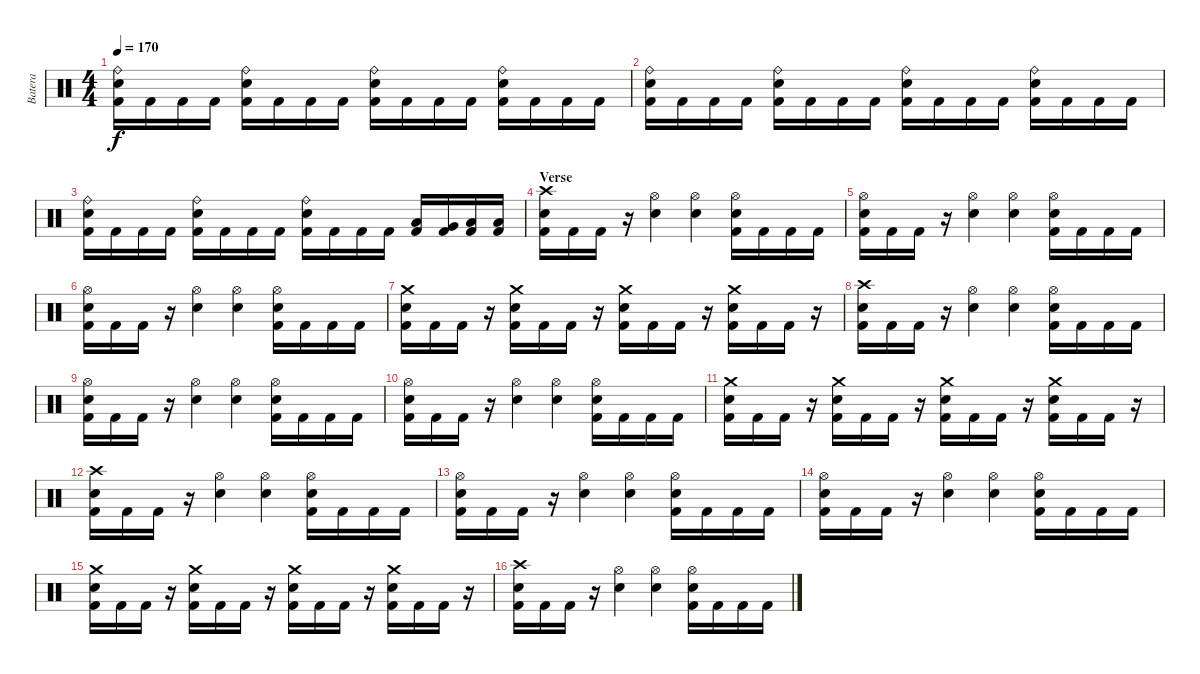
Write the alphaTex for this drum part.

\track ("Batera" "Batera") {instrument percussion}
\staff {score}
\articulation defaults
\ts (4 4)
\tempo 170
\clef neutral
\ks c
("Ride (bell)" "Electric Snare (hit)" "Kick (hit) 2").16{dy f} "Kick (hit) 2".16 "Kick (hit) 2".16 "Kick (hit) 2".16 ("Ride (bell)" "Electric Snare (hit)" "Kick (hit) 2").16 "Kick (hit) 2".16 "Kick (hit) 2".16 "Kick (hit) 2".16 ("Ride (bell)" "Electric Snare (hit)" "Kick (hit) 2").16 "Kick (hit) 2".16 "Kick (hit) 2".16 "Kick (hit) 2".16 ("Ride (bell)" "Electric Snare (hit)" "Kick (hit) 2").16 "Kick (hit) 2".16 "Kick (hit) 2".16 "Kick (hit) 2".16 |
("Ride (bell)" "Electric Snare (hit)" "Kick (hit) 2").16 "Kick (hit) 2".16 "Kick (hit) 2".16 "Kick (hit) 2".16 ("Ride (bell)" "Electric Snare (hit)" "Kick (hit) 2").16 "Kick (hit) 2".16 "Kick (hit) 2".16 "Kick (hit) 2".16 ("Ride (bell)" "Electric Snare (hit)" "Kick (hit) 2").16 "Kick (hit) 2".16 "Kick (hit) 2".16 "Kick (hit) 2".16 ("Ride (bell)" "Electric Snare (hit)" "Kick (hit) 2").16 "Kick (hit) 2".16 "Kick (hit) 2".16 "Kick (hit) 2".16 |
("Ride (bell)" "Electric Snare (hit)" "Kick (hit) 2").16 "Kick (hit) 2".16 "Kick (hit) 2".16 "Kick (hit) 2".16 ("Ride (bell)" "Electric Snare (hit)" "Kick (hit) 2").16 "Kick (hit) 2".16 "Kick (hit) 2".16 "Kick (hit) 2".16 ("Ride (bell)" "Electric Snare (hit)" "Kick (hit) 2").16 "Kick (hit) 2".16 "Kick (hit) 2".16 "Kick (hit) 2".16 ("Low Floor Tom (hit)" "Kick (hit) 2").16 ("Very Low Tom (hit)" "Kick (hit) 2").16 ("Low Floor Tom (hit)" "Kick (hit) 2").16 ("Low Tom (hit)" "Kick (hit) 2").16 |
\section ("" "Verse")
("Crash high (hit)" "Electric Snare (hit)" "Kick (hit) 2").16 "Kick (hit) 2".16 "Kick (hit) 2".16 r.16 ("Hi-Hat (open)" "Electric Snare (hit)").4 ("Hi-Hat (open)" "Electric Snare (hit)").4 ("Hi-Hat (open)" "Electric Snare (hit)" "Kick (hit) 2").16 "Kick (hit) 2".16 "Kick (hit) 2".16 "Kick (hit) 2".16 |
("Hi-Hat (open)" "Electric Snare (hit)" "Kick (hit) 2").16 "Kick (hit) 2".16 "Kick (hit) 2".16 r.16 ("Hi-Hat (open)" "Electric Snare (hit)").4 ("Hi-Hat (open)" "Electric Snare (hit)").4 ("Hi-Hat (open)" "Electric Snare (hit)" "Kick (hit) 2").16 "Kick (hit) 2".16 "Kick (hit) 2".16 "Kick (hit) 2".16 |
("Hi-Hat (open)" "Electric Snare (hit)" "Kick (hit) 2").16 "Kick (hit) 2".16 "Kick (hit) 2".16 r.16 ("Hi-Hat (open)" "Electric Snare (hit)").4 ("Hi-Hat (open)" "Electric Snare (hit)").4 ("Hi-Hat (open)" "Electric Snare (hit)" "Kick (hit) 2").16 "Kick (hit) 2".16 "Kick (hit) 2".16 "Kick (hit) 2".16 |
("Crash medium (hit)" "Electric Snare (hit)" "Kick (hit) 2").16 "Kick (hit) 2".16 "Kick (hit) 2".16 r.16 ("Crash medium (hit)" "Electric Snare (hit)" "Kick (hit) 2").16 "Kick (hit) 2".16 "Kick (hit) 2".16 r.16 ("Crash medium (hit)" "Electric Snare (hit)" "Kick (hit) 2").16 "Kick (hit) 2".16 "Kick (hit) 2".16 r.16 ("Crash medium (hit)" "Electric Snare (hit)" "Kick (hit) 2").16 "Kick (hit) 2".16 "Kick (hit) 2".16 r.16 |
("Crash high (hit)" "Electric Snare (hit)" "Kick (hit) 2").16 "Kick (hit) 2".16 "Kick (hit) 2".16 r.16 ("Hi-Hat (open)" "Electric Snare (hit)").4 ("Hi-Hat (open)" "Electric Snare (hit)").4 ("Hi-Hat (open)" "Electric Snare (hit)" "Kick (hit) 2").16 "Kick (hit) 2".16 "Kick (hit) 2".16 "Kick (hit) 2".16 |
("Hi-Hat (open)" "Electric Snare (hit)" "Kick (hit) 2").16 "Kick (hit) 2".16 "Kick (hit) 2".16 r.16 ("Hi-Hat (open)" "Electric Snare (hit)").4 ("Hi-Hat (open)" "Electric Snare (hit)").4 ("Hi-Hat (open)" "Electric Snare (hit)" "Kick (hit) 2").16 "Kick (hit) 2".16 "Kick (hit) 2".16 "Kick (hit) 2".16 |
("Hi-Hat (open)" "Electric Snare (hit)" "Kick (hit) 2").16 "Kick (hit) 2".16 "Kick (hit) 2".16 r.16 ("Hi-Hat (open)" "Electric Snare (hit)").4 ("Hi-Hat (open)" "Electric Snare (hit)").4 ("Hi-Hat (open)" "Electric Snare (hit)" "Kick (hit) 2").16 "Kick (hit) 2".16 "Kick (hit) 2".16 "Kick (hit) 2".16 |
("Crash medium (hit)" "Electric Snare (hit)" "Kick (hit) 2").16 "Kick (hit) 2".16 "Kick (hit) 2".16 r.16 ("Crash medium (hit)" "Electric Snare (hit)" "Kick (hit) 2").16 "Kick (hit) 2".16 "Kick (hit) 2".16 r.16 ("Crash medium (hit)" "Electric Snare (hit)" "Kick (hit) 2").16 "Kick (hit) 2".16 "Kick (hit) 2".16 r.16 ("Crash medium (hit)" "Electric Snare (hit)" "Kick (hit) 2").16 "Kick (hit) 2".16 "Kick (hit) 2".16 r.16 |
("Crash high (hit)" "Electric Snare (hit)" "Kick (hit) 2").16 "Kick (hit) 2".16 "Kick (hit) 2".16 r.16 ("Hi-Hat (open)" "Electric Snare (hit)").4 ("Hi-Hat (open)" "Electric Snare (hit)").4 ("Hi-Hat (open)" "Electric Snare (hit)" "Kick (hit) 2").16 "Kick (hit) 2".16 "Kick (hit) 2".16 "Kick (hit) 2".16 |
("Hi-Hat (open)" "Electric Snare (hit)" "Kick (hit) 2").16 "Kick (hit) 2".16 "Kick (hit) 2".16 r.16 ("Hi-Hat (open)" "Electric Snare (hit)").4 ("Hi-Hat (open)" "Electric Snare (hit)").4 ("Hi-Hat (open)" "Electric Snare (hit)" "Kick (hit) 2").16 "Kick (hit) 2".16 "Kick (hit) 2".16 "Kick (hit) 2".16 |
("Hi-Hat (open)" "Electric Snare (hit)" "Kick (hit) 2").16 "Kick (hit) 2".16 "Kick (hit) 2".16 r.16 ("Hi-Hat (open)" "Electric Snare (hit)").4 ("Hi-Hat (open)" "Electric Snare (hit)").4 ("Hi-Hat (open)" "Electric Snare (hit)" "Kick (hit) 2").16 "Kick (hit) 2".16 "Kick (hit) 2".16 "Kick (hit) 2".16 |
("Crash medium (hit)" "Electric Snare (hit)" "Kick (hit) 2").16 "Kick (hit) 2".16 "Kick (hit) 2".16 r.16 ("Crash medium (hit)" "Electric Snare (hit)" "Kick (hit) 2").16 "Kick (hit) 2".16 "Kick (hit) 2".16 r.16 ("Crash medium (hit)" "Electric Snare (hit)" "Kick (hit) 2").16 "Kick (hit) 2".16 "Kick (hit) 2".16 r.16 ("Crash medium (hit)" "Electric Snare (hit)" "Kick (hit) 2").16 "Kick (hit) 2".16 "Kick (hit) 2".16 r.16 |
("Crash high (hit)" "Electric Snare (hit)" "Kick (hit) 2").16 "Kick (hit) 2".16 "Kick (hit) 2".16 r.16 ("Hi-Hat (open)" "Electric Snare (hit)").4 ("Hi-Hat (open)" "Electric Snare (hit)").4 ("Hi-Hat (open)" "Electric Snare (hit)" "Kick (hit) 2").16 "Kick (hit) 2".16 "Kick (hit) 2".16 "Kick (hit) 2".16
